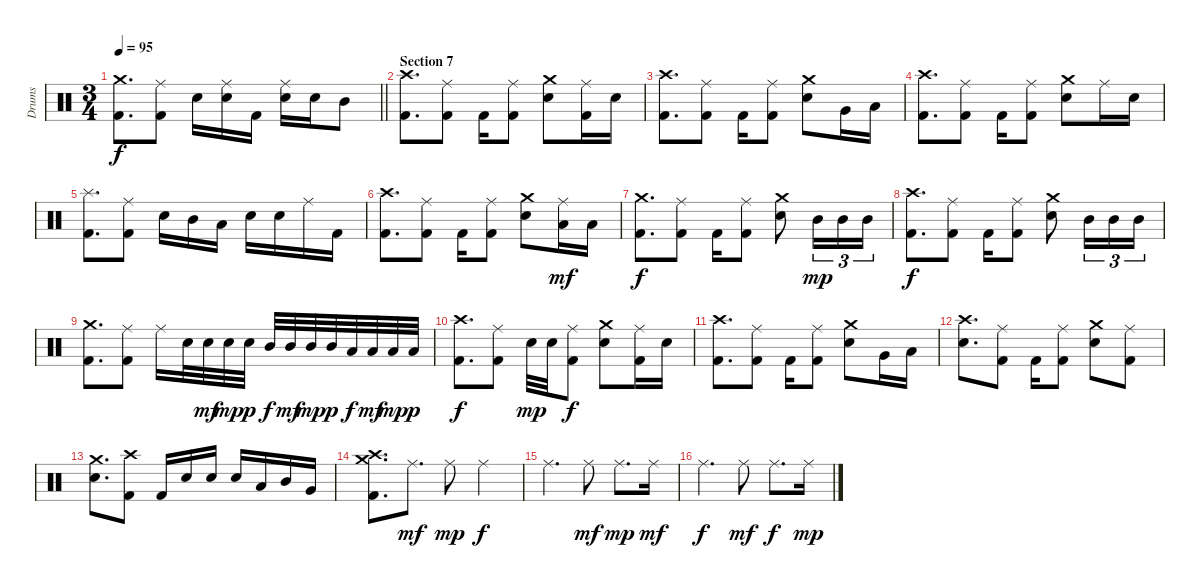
\track ("Drums" "Drums") {instrument percussion}
\staff {score}
\articulation defaults
\ts (3 4)
\tempo 95
\clef neutral
\barLineRight lightlight
\ks c
("Crash medium (hit)" "Kick (hit) 2").8{d dy f} ("Ride (middle)" "Kick (hit) 2").8 "Electric Snare (hit)".16 ("Ride (middle)" "Electric Snare (hit)").16 "Kick (hit) 2".16 ("Ride (middle)" "Electric Snare (hit)").16 "Electric Snare (hit)".16 "Mid Tom (hit)".8 |
\section ("" "Section 7")
("Crash high (hit)" "Kick (hit) 2").8{d} ("Ride (middle)" "Kick (hit) 2").8 "Kick (hit) 2".16 ("Ride (middle)" "Kick (hit) 2").8 ("Crash medium (hit)" "Electric Snare (hit)").8 ("Ride (middle)" "Kick (hit) 2").16 "Electric Snare (hit)".16 |
("Crash high (hit)" "Kick (hit) 2").8{d} ("Ride (middle)" "Kick (hit) 2").8 "Kick (hit) 2".16 ("Ride (middle)" "Kick (hit) 2").8 ("Crash medium (hit)" "Electric Snare (hit)").8 "Very Low Tom (hit)".16 "Low Floor Tom (hit)".16 |
("Crash high (hit)" "Kick (hit) 2").8{d} ("Ride (middle)" "Kick (hit) 2").8 "Kick (hit) 2".16 ("Ride (middle)" "Kick (hit) 2").8 ("Crash medium (hit)" "Electric Snare (hit)").8 "Ride (middle)".16 "Electric Snare (hit)".16 |
("Splash (hit)" "Kick (hit) 2").8{d} ("Ride (middle)" "Kick (hit) 2").8 "Electric Snare (hit)".16 "Mid Tom (hit)".16 "Low Tom (hit)".16 "Electric Snare (hit)".16 "Electric Snare (hit)".16 "Ride (middle)".16 "Kick (hit) 2".16 |
("Crash high (hit)" "Kick (hit) 2").8{d} ("Ride (middle)" "Kick (hit) 2").8 "Kick (hit) 2".16 ("Ride (middle)" "Kick (hit) 2").8 ("Crash medium (hit)" "Electric Snare (hit)").8 ("Ride (middle)" "Low Tom (hit)").16{dy mf} "Low Tom (hit)".16 |
("Crash medium (hit)" "Kick (hit) 2").8{d dy f} ("Ride (middle)" "Kick (hit) 2").8 "Kick (hit) 2".16 ("Ride (middle)" "Kick (hit) 2").8 ("Crash medium (hit)" "Electric Snare (hit)").8 "Mid Tom (hit)".16{tu (3 2) dy mp} "Mid Tom (hit)".16{tu (3 2)} "Mid Tom (hit)".16{tu (3 2)} |
("Crash high (hit)" "Kick (hit) 2").8{d dy f} ("Ride (middle)" "Kick (hit) 2").8 "Kick (hit) 2".16 ("Ride (middle)" "Kick (hit) 2").8 ("Crash medium (hit)" "Electric Snare (hit)").8 "Mid Tom (hit)".16{tu (3 2)} "Mid Tom (hit)".16{tu (3 2)} "Mid Tom (hit)".16{tu (3 2)} |
("Crash medium (hit)" "Kick (hit) 2").8{d} ("Ride (middle)" "Kick (hit) 2").8 "Ride (middle)".16 "Electric Snare (hit)".32 "Electric Snare (hit)".32{dy mf} "Electric Snare (hit)".32{dy mp} "Electric Snare (hit)".32{dy p} "Mid Tom (hit)".32{dy f} "Mid Tom (hit)".32{dy mf} "Mid Tom (hit)".32{dy mp} "Mid Tom (hit)".32{dy p} "Low Tom (hit)".32{dy f} "Low Tom (hit)".32{dy mf} "Low Tom (hit)".32{dy mp} "Low Tom (hit)".32{dy p} |
("Crash high (hit)" "Kick (hit) 2").8{d dy f} ("Ride (middle)" "Kick (hit) 2").8 "Electric Snare (hit)".32{dy mp} "Electric Snare (hit)".32 ("Ride (middle)" "Kick (hit) 2").8{dy f} ("Crash medium (hit)" "Electric Snare (hit)").8 ("Ride (middle)" "Kick (hit) 2").16 "Electric Snare (hit)".16 |
("Crash high (hit)" "Kick (hit) 2").8{d} ("Ride (middle)" "Kick (hit) 2").8 "Kick (hit) 2".16 ("Ride (middle)" "Kick (hit) 2").8 ("Crash medium (hit)" "Electric Snare (hit)").8 "Very Low Tom (hit)".16 "Low Floor Tom (hit)".16 |
("Crash high (hit)" "Electric Snare (hit)").8{d} ("Ride (middle)" "Kick (hit) 2").8 "Kick (hit) 2".16 ("Ride (middle)" "Kick (hit) 2").8 ("Crash medium (hit)" "Electric Snare (hit)").8 ("Ride (middle)" "Kick (hit) 2").8 |
("Crash medium (hit)" "Electric Snare (hit)").8{d} ("Crash high (hit)" "Kick (hit) 2").8 "Kick (hit) 2".16 "Electric Snare (hit)".16 "Electric Snare (hit)".16 "Electric Snare (hit)".16 "Low Tom (hit)".16 "Mid Tom (hit)".16 "Very Low Tom (hit)".16 |
("Crash high (hit)" "Crash medium (hit)" "Kick (hit) 2").8{d} "Ride (middle)".8{d dy mf volume 10} "Ride (middle)".8{dy mp} "Ride (middle)".4{dy f} |
"Ride (middle)".4{d} "Ride (middle)".8{dy mf} "Ride (middle)".8{d dy mp} "Ride (middle)".16{dy mf} |
"Ride (middle)".4{d dy f} "Ride (middle)".8{dy mf} "Ride (middle)".8{d dy f} "Ride (middle)".16{dy mp}
